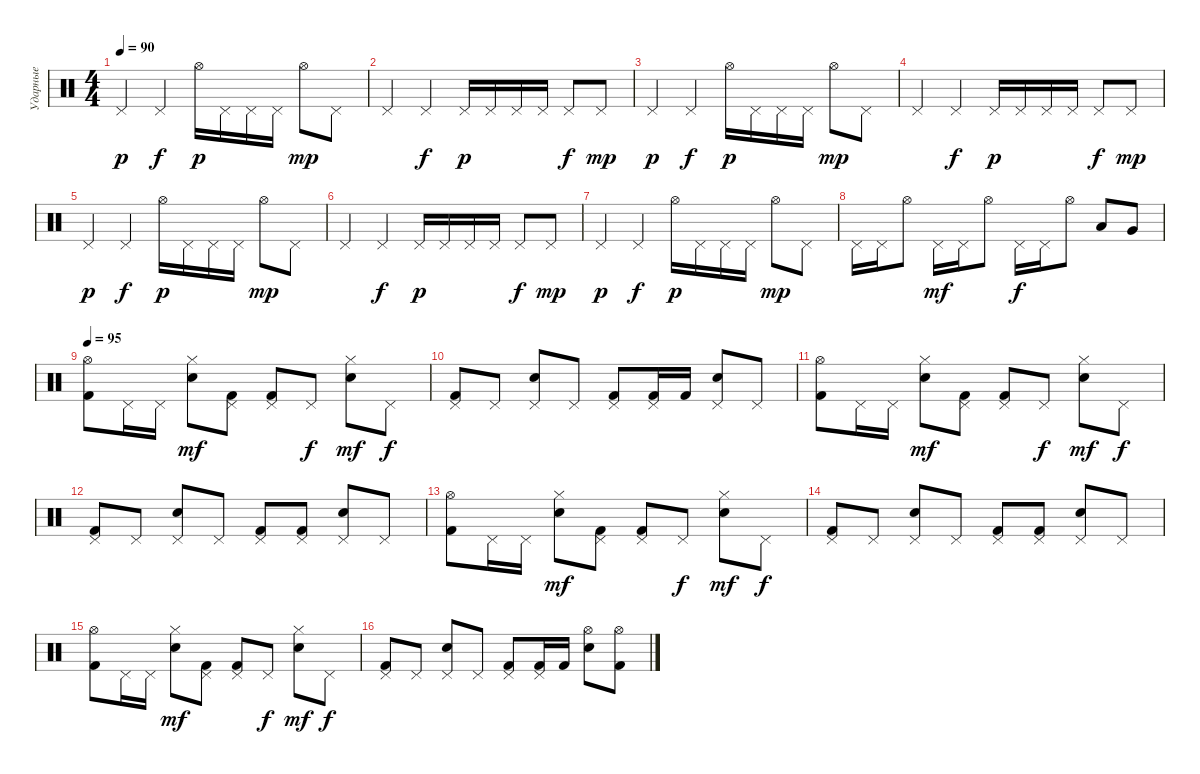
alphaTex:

\track ("Ударные" "Ударные") {instrument percussion}
\staff {score}
\articulation defaults
\ts (4 4)
\tempo 90
\clef neutral
\ks c "Pedal Hi-Hat (hit)".4{dy p} "Pedal Hi-Hat (hit)".4{dy f} "Hi-Hat (open)".16{dy p} "Pedal Hi-Hat (hit)".16 "Pedal Hi-Hat (hit)".16 "Pedal Hi-Hat (hit)".16 "Hi-Hat (open)".8{dy mp} "Pedal Hi-Hat (hit)".8
|
"Pedal Hi-Hat (hit)".4 "Pedal Hi-Hat (hit)".4{dy f} "Pedal Hi-Hat (hit)".16{dy p} "Pedal Hi-Hat (hit)".16 "Pedal Hi-Hat (hit)".16 "Pedal Hi-Hat (hit)".16 "Pedal Hi-Hat (hit)".8{dy f} "Pedal Hi-Hat (hit)".8{dy mp} |
"Pedal Hi-Hat (hit)".4{dy p} "Pedal Hi-Hat (hit)".4{dy f} "Hi-Hat (open)".16{dy p} "Pedal Hi-Hat (hit)".16 "Pedal Hi-Hat (hit)".16 "Pedal Hi-Hat (hit)".16 "Hi-Hat (open)".8{dy mp} "Pedal Hi-Hat (hit)".8 |
"Pedal Hi-Hat (hit)".4 "Pedal Hi-Hat (hit)".4{dy f} "Pedal Hi-Hat (hit)".16{dy p} "Pedal Hi-Hat (hit)".16 "Pedal Hi-Hat (hit)".16 "Pedal Hi-Hat (hit)".16 "Pedal Hi-Hat (hit)".8{dy f} "Pedal Hi-Hat (hit)".8{dy mp} |
"Pedal Hi-Hat (hit)".4{dy p} "Pedal Hi-Hat (hit)".4{dy f} "Hi-Hat (open)".16{dy p} "Pedal Hi-Hat (hit)".16 "Pedal Hi-Hat (hit)".16 "Pedal Hi-Hat (hit)".16 "Hi-Hat (open)".8{dy mp} "Pedal Hi-Hat (hit)".8 |
"Pedal Hi-Hat (hit)".4 "Pedal Hi-Hat (hit)".4{dy f} "Pedal Hi-Hat (hit)".16{dy p} "Pedal Hi-Hat (hit)".16 "Pedal Hi-Hat (hit)".16 "Pedal Hi-Hat (hit)".16 "Pedal Hi-Hat (hit)".8{dy f} "Pedal Hi-Hat (hit)".8{dy mp} |
"Pedal Hi-Hat (hit)".4{dy p} "Pedal Hi-Hat (hit)".4{dy f} "Hi-Hat (open)".16{dy p} "Pedal Hi-Hat (hit)".16 "Pedal Hi-Hat (hit)".16 "Pedal Hi-Hat (hit)".16 "Hi-Hat (open)".8{dy mp} "Pedal Hi-Hat (hit)".8 |
"Pedal Hi-Hat (hit)".16 "Pedal Hi-Hat (hit)".16 "Hi-Hat (open)".8 "Pedal Hi-Hat (hit)".16{dy mf} "Pedal Hi-Hat (hit)".16 "Hi-Hat (open)".8 "Pedal Hi-Hat (hit)".16{dy f} "Pedal Hi-Hat (hit)".16 "Hi-Hat (open)".8 "Low Tom (hit)".8 "Very Low Tom (hit)".8 |
\tempo 95
("Kick (hit) 2" "Hi-Hat (open)").8 "Pedal Hi-Hat (hit)".16 "Pedal Hi-Hat (hit)".16 ("Hi-Hat (closed)" "Electric Snare (hit)").8{dy mf} ("Pedal Hi-Hat (hit)" "Kick (hit) 2").8 ("Pedal Hi-Hat (hit)" "Kick (hit) 2").8 "Pedal Hi-Hat (hit)".8{dy f} ("Hi-Hat (closed)" "Electric Snare (hit)").8{dy mf} "Pedal Hi-Hat (hit)".8{dy f} |
("Pedal Hi-Hat (hit)" "Kick (hit) 2").8 "Pedal Hi-Hat (hit)".8 ("Pedal Hi-Hat (hit)" "Electric Snare (hit)").8 "Pedal Hi-Hat (hit)".8 ("Pedal Hi-Hat (hit)" "Kick (hit) 2").8 ("Pedal Hi-Hat (hit)" "Kick (hit) 2").16 "Kick (hit) 2".16 ("Pedal Hi-Hat (hit)" "Electric Snare (hit)").8 "Pedal Hi-Hat (hit)".8 |
("Kick (hit) 2" "Hi-Hat (open)").8 "Pedal Hi-Hat (hit)".16 "Pedal Hi-Hat (hit)".16 ("Hi-Hat (closed)" "Electric Snare (hit)").8{dy mf} ("Pedal Hi-Hat (hit)" "Kick (hit) 2").8 ("Pedal Hi-Hat (hit)" "Kick (hit) 2").8 "Pedal Hi-Hat (hit)".8{dy f} ("Hi-Hat (closed)" "Electric Snare (hit)").8{dy mf} "Pedal Hi-Hat (hit)".8{dy f} |
("Pedal Hi-Hat (hit)" "Kick (hit) 2").8 "Pedal Hi-Hat (hit)".8 ("Pedal Hi-Hat (hit)" "Electric Snare (hit)").8 "Pedal Hi-Hat (hit)".8 ("Pedal Hi-Hat (hit)" "Kick (hit) 2").8 ("Pedal Hi-Hat (hit)" "Kick (hit) 2").8 ("Pedal Hi-Hat (hit)" "Electric Snare (hit)").8 "Pedal Hi-Hat (hit)".8 |
("Kick (hit) 2" "Hi-Hat (open)").8 "Pedal Hi-Hat (hit)".16 "Pedal Hi-Hat (hit)".16 ("Hi-Hat (closed)" "Electric Snare (hit)").8{dy mf} ("Pedal Hi-Hat (hit)" "Kick (hit) 2").8 ("Pedal Hi-Hat (hit)" "Kick (hit) 2").8 "Pedal Hi-Hat (hit)".8{dy f} ("Hi-Hat (closed)" "Electric Snare (hit)").8{dy mf} "Pedal Hi-Hat (hit)".8{dy f} |
("Pedal Hi-Hat (hit)" "Kick (hit) 2").8 "Pedal Hi-Hat (hit)".8 ("Pedal Hi-Hat (hit)" "Electric Snare (hit)").8 "Pedal Hi-Hat (hit)".8 ("Pedal Hi-Hat (hit)" "Kick (hit) 2").8 ("Pedal Hi-Hat (hit)" "Kick (hit) 2").8 ("Pedal Hi-Hat (hit)" "Electric Snare (hit)").8 "Pedal Hi-Hat (hit)".8 |
("Kick (hit) 2" "Hi-Hat (open)").8 "Pedal Hi-Hat (hit)".16 "Pedal Hi-Hat (hit)".16 ("Hi-Hat (closed)" "Electric Snare (hit)").8{dy mf} ("Pedal Hi-Hat (hit)" "Kick (hit) 2").8 ("Pedal Hi-Hat (hit)" "Kick (hit) 2").8 "Pedal Hi-Hat (hit)".8{dy f} ("Hi-Hat (closed)" "Electric Snare (hit)").8{dy mf} "Pedal Hi-Hat (hit)".8{dy f} |
("Pedal Hi-Hat (hit)" "Kick (hit) 2").8 "Pedal Hi-Hat (hit)".8 ("Pedal Hi-Hat (hit)" "Electric Snare (hit)").8 "Pedal Hi-Hat (hit)".8 ("Pedal Hi-Hat (hit)" "Kick (hit) 2").8 ("Pedal Hi-Hat (hit)" "Kick (hit) 2").16 "Kick (hit) 2".16 ("Hi-Hat (open)" "Electric Snare (hit)").8 ("Hi-Hat (open)" "Kick (hit) 2").8
